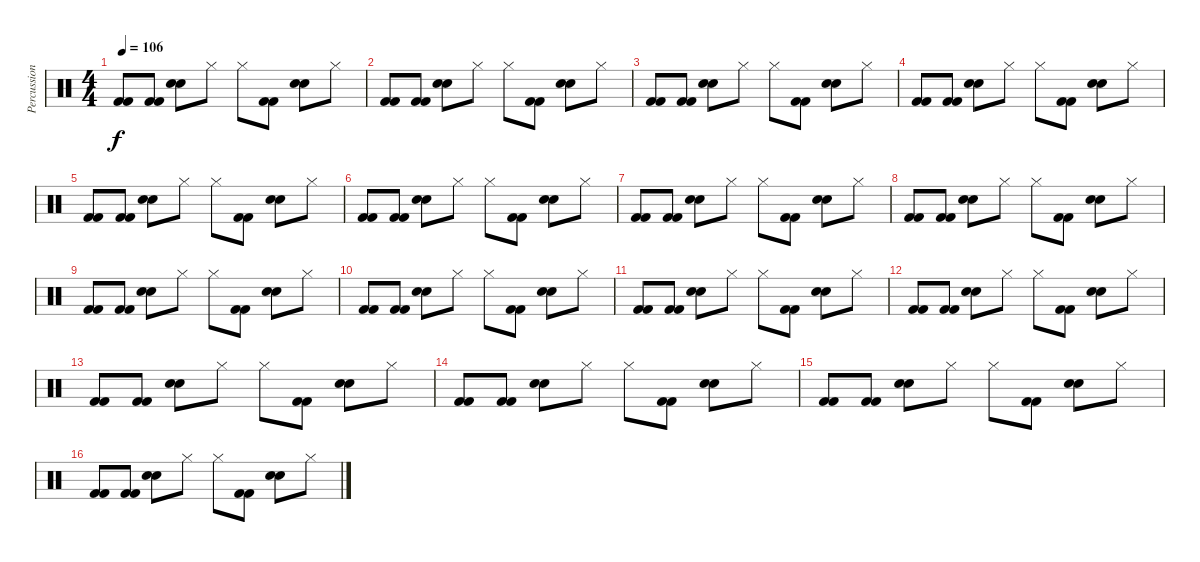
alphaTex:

\track ("Percussion" "Percussion") {instrument percussion}
\staff {score}
\articulation defaults
\ts (4 4)
\tempo 106
\clef neutral
\ks c
("Kick (hit) 2" "Kick (hit) 2").8{dy f} ("Kick (hit) 2" "Kick (hit) 2").8 ("Electric Snare (hit)" "Electric Snare (hit)").8 "Hi-Hat (closed)".8 "Hi-Hat (closed)".8 ("Kick (hit) 2" "Kick (hit) 2").8 ("Electric Snare (hit)" "Electric Snare (hit)").8 "Hi-Hat (closed)".8 |
("Kick (hit) 2" "Kick (hit) 2").8 ("Kick (hit) 2" "Kick (hit) 2").8 ("Electric Snare (hit)" "Electric Snare (hit)").8 "Hi-Hat (closed)".8 "Hi-Hat (closed)".8 ("Kick (hit) 2" "Kick (hit) 2").8 ("Electric Snare (hit)" "Electric Snare (hit)").8 "Hi-Hat (closed)".8 |
("Kick (hit) 2" "Kick (hit) 2").8 ("Kick (hit) 2" "Kick (hit) 2").8 ("Electric Snare (hit)" "Electric Snare (hit)").8 "Hi-Hat (closed)".8 "Hi-Hat (closed)".8 ("Kick (hit) 2" "Kick (hit) 2").8 ("Electric Snare (hit)" "Electric Snare (hit)").8 "Hi-Hat (closed)".8 |
("Kick (hit) 2" "Kick (hit) 2").8 ("Kick (hit) 2" "Kick (hit) 2").8 ("Electric Snare (hit)" "Electric Snare (hit)").8 "Hi-Hat (closed)".8 "Hi-Hat (closed)".8 ("Kick (hit) 2" "Kick (hit) 2").8 ("Electric Snare (hit)" "Electric Snare (hit)").8 "Hi-Hat (closed)".8 |
("Kick (hit) 2" "Kick (hit) 2").8 ("Kick (hit) 2" "Kick (hit) 2").8 ("Electric Snare (hit)" "Electric Snare (hit)").8 "Hi-Hat (closed)".8 "Hi-Hat (closed)".8 ("Kick (hit) 2" "Kick (hit) 2").8 ("Electric Snare (hit)" "Electric Snare (hit)").8 "Hi-Hat (closed)".8 |
("Kick (hit) 2" "Kick (hit) 2").8 ("Kick (hit) 2" "Kick (hit) 2").8 ("Electric Snare (hit)" "Electric Snare (hit)").8 "Hi-Hat (closed)".8 "Hi-Hat (closed)".8 ("Kick (hit) 2" "Kick (hit) 2").8 ("Electric Snare (hit)" "Electric Snare (hit)").8 "Hi-Hat (closed)".8 |
("Kick (hit) 2" "Kick (hit) 2").8 ("Kick (hit) 2" "Kick (hit) 2").8 ("Electric Snare (hit)" "Electric Snare (hit)").8 "Hi-Hat (closed)".8 "Hi-Hat (closed)".8 ("Kick (hit) 2" "Kick (hit) 2").8 ("Electric Snare (hit)" "Electric Snare (hit)").8 "Hi-Hat (closed)".8 |
("Kick (hit) 2" "Kick (hit) 2").8 ("Kick (hit) 2" "Kick (hit) 2").8 ("Electric Snare (hit)" "Electric Snare (hit)").8 "Hi-Hat (closed)".8 "Hi-Hat (closed)".8 ("Kick (hit) 2" "Kick (hit) 2").8 ("Electric Snare (hit)" "Electric Snare (hit)").8 "Hi-Hat (closed)".8 |
("Kick (hit) 2" "Kick (hit) 2").8 ("Kick (hit) 2" "Kick (hit) 2").8 ("Electric Snare (hit)" "Electric Snare (hit)").8 "Hi-Hat (closed)".8 "Hi-Hat (closed)".8 ("Kick (hit) 2" "Kick (hit) 2").8 ("Electric Snare (hit)" "Electric Snare (hit)").8 "Hi-Hat (closed)".8 |
("Kick (hit) 2" "Kick (hit) 2").8 ("Kick (hit) 2" "Kick (hit) 2").8 ("Electric Snare (hit)" "Electric Snare (hit)").8 "Hi-Hat (closed)".8 "Hi-Hat (closed)".8 ("Kick (hit) 2" "Kick (hit) 2").8 ("Electric Snare (hit)" "Electric Snare (hit)").8 "Hi-Hat (closed)".8 |
("Kick (hit) 2" "Kick (hit) 2").8 ("Kick (hit) 2" "Kick (hit) 2").8 ("Electric Snare (hit)" "Electric Snare (hit)").8 "Hi-Hat (closed)".8 "Hi-Hat (closed)".8 ("Kick (hit) 2" "Kick (hit) 2").8 ("Electric Snare (hit)" "Electric Snare (hit)").8 "Hi-Hat (closed)".8 |
("Kick (hit) 2" "Kick (hit) 2").8 ("Kick (hit) 2" "Kick (hit) 2").8 ("Electric Snare (hit)" "Electric Snare (hit)").8 "Hi-Hat (closed)".8 "Hi-Hat (closed)".8 ("Kick (hit) 2" "Kick (hit) 2").8 ("Electric Snare (hit)" "Electric Snare (hit)").8 "Hi-Hat (closed)".8 |
("Kick (hit) 2" "Kick (hit) 2").8 ("Kick (hit) 2" "Kick (hit) 2").8 ("Electric Snare (hit)" "Electric Snare (hit)").8 "Hi-Hat (closed)".8 "Hi-Hat (closed)".8 ("Kick (hit) 2" "Kick (hit) 2").8 ("Electric Snare (hit)" "Electric Snare (hit)").8 "Hi-Hat (closed)".8 |
("Kick (hit) 2" "Kick (hit) 2").8 ("Kick (hit) 2" "Kick (hit) 2").8 ("Electric Snare (hit)" "Electric Snare (hit)").8 "Hi-Hat (closed)".8 "Hi-Hat (closed)".8 ("Kick (hit) 2" "Kick (hit) 2").8 ("Electric Snare (hit)" "Electric Snare (hit)").8 "Hi-Hat (closed)".8 |
("Kick (hit) 2" "Kick (hit) 2").8 ("Kick (hit) 2" "Kick (hit) 2").8 ("Electric Snare (hit)" "Electric Snare (hit)").8 "Hi-Hat (closed)".8 "Hi-Hat (closed)".8 ("Kick (hit) 2" "Kick (hit) 2").8 ("Electric Snare (hit)" "Electric Snare (hit)").8 "Hi-Hat (closed)".8 |
("Kick (hit) 2" "Kick (hit) 2").8 ("Kick (hit) 2" "Kick (hit) 2").8 ("Electric Snare (hit)" "Electric Snare (hit)").8 "Hi-Hat (closed)".8 "Hi-Hat (closed)".8 ("Kick (hit) 2" "Kick (hit) 2").8 ("Electric Snare (hit)" "Electric Snare (hit)").8 "Hi-Hat (closed)".8
